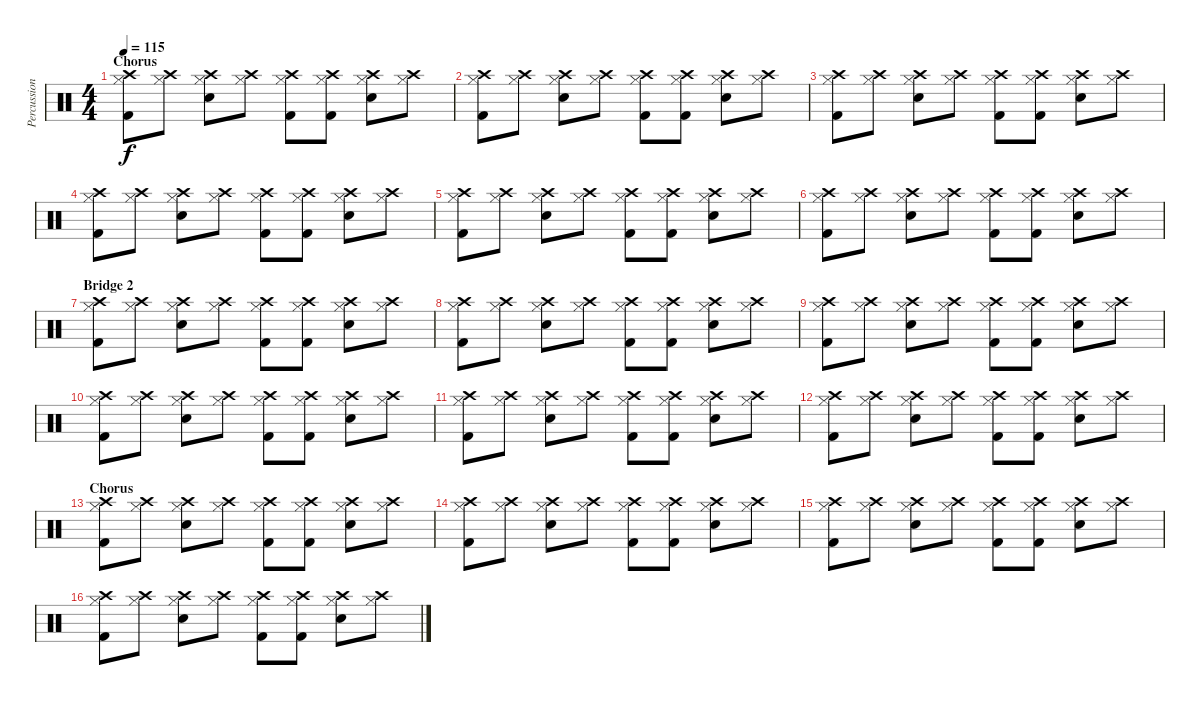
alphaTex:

\track ("Percussions" "Percussion") {instrument percussion}
\staff {score}
\articulation defaults
\ts (4 4)
\section ("" "Chorus")
\tempo 115
\clef neutral
\ks c
("Crash high (hit)" "Hi-Hat (closed)" "Kick (hit) 2").8{dy f} ("Crash high (hit)" "Hi-Hat (closed)").8 ("Crash high (hit)" "Hi-Hat (closed)" "Electric Snare (hit)").8 ("Crash high (hit)" "Hi-Hat (closed)").8 ("Crash high (hit)" "Hi-Hat (closed)" "Kick (hit) 2").8 ("Crash high (hit)" "Hi-Hat (closed)" "Kick (hit) 2").8 ("Crash high (hit)" "Hi-Hat (closed)" "Electric Snare (hit)").8 ("Crash high (hit)" "Hi-Hat (closed)").8 |
("Crash high (hit)" "Hi-Hat (closed)" "Kick (hit) 2").8 ("Crash high (hit)" "Hi-Hat (closed)").8 ("Crash high (hit)" "Hi-Hat (closed)" "Electric Snare (hit)").8 ("Crash high (hit)" "Hi-Hat (closed)").8 ("Crash high (hit)" "Hi-Hat (closed)" "Kick (hit) 2").8 ("Crash high (hit)" "Hi-Hat (closed)" "Kick (hit) 2").8 ("Crash high (hit)" "Hi-Hat (closed)" "Electric Snare (hit)").8 ("Crash high (hit)" "Hi-Hat (closed)").8 |
("Crash high (hit)" "Hi-Hat (closed)" "Kick (hit) 2").8 ("Crash high (hit)" "Hi-Hat (closed)").8 ("Crash high (hit)" "Hi-Hat (closed)" "Electric Snare (hit)").8 ("Crash high (hit)" "Hi-Hat (closed)").8 ("Crash high (hit)" "Hi-Hat (closed)" "Kick (hit) 2").8 ("Crash high (hit)" "Hi-Hat (closed)" "Kick (hit) 2").8 ("Crash high (hit)" "Hi-Hat (closed)" "Electric Snare (hit)").8 ("Crash high (hit)" "Hi-Hat (closed)").8 |
("Crash high (hit)" "Hi-Hat (closed)" "Kick (hit) 2").8 ("Crash high (hit)" "Hi-Hat (closed)").8 ("Crash high (hit)" "Hi-Hat (closed)" "Electric Snare (hit)").8 ("Crash high (hit)" "Hi-Hat (closed)").8 ("Crash high (hit)" "Hi-Hat (closed)" "Kick (hit) 2").8 ("Crash high (hit)" "Hi-Hat (closed)" "Kick (hit) 2").8 ("Crash high (hit)" "Hi-Hat (closed)" "Electric Snare (hit)").8 ("Crash high (hit)" "Hi-Hat (closed)").8 |
("Crash high (hit)" "Hi-Hat (closed)" "Kick (hit) 2").8 ("Crash high (hit)" "Hi-Hat (closed)").8 ("Crash high (hit)" "Hi-Hat (closed)" "Electric Snare (hit)").8 ("Crash high (hit)" "Hi-Hat (closed)").8 ("Crash high (hit)" "Hi-Hat (closed)" "Kick (hit) 2").8 ("Crash high (hit)" "Hi-Hat (closed)" "Kick (hit) 2").8 ("Crash high (hit)" "Hi-Hat (closed)" "Electric Snare (hit)").8 ("Crash high (hit)" "Hi-Hat (closed)").8 |
("Crash high (hit)" "Hi-Hat (closed)" "Kick (hit) 2").8 ("Crash high (hit)" "Hi-Hat (closed)").8 ("Crash high (hit)" "Hi-Hat (closed)" "Electric Snare (hit)").8 ("Crash high (hit)" "Hi-Hat (closed)").8 ("Crash high (hit)" "Hi-Hat (closed)" "Kick (hit) 2").8 ("Crash high (hit)" "Hi-Hat (closed)" "Kick (hit) 2").8 ("Crash high (hit)" "Hi-Hat (closed)" "Electric Snare (hit)").8 ("Crash high (hit)" "Hi-Hat (closed)").8 |
\section ("" "Bridge 2")
("Crash high (hit)" "Hi-Hat (closed)" "Kick (hit) 2").8 ("Crash high (hit)" "Hi-Hat (closed)").8 ("Crash high (hit)" "Hi-Hat (closed)" "Electric Snare (hit)").8 ("Crash high (hit)" "Hi-Hat (closed)").8 ("Crash high (hit)" "Hi-Hat (closed)" "Kick (hit) 2").8 ("Crash high (hit)" "Hi-Hat (closed)" "Kick (hit) 2").8 ("Crash high (hit)" "Hi-Hat (closed)" "Electric Snare (hit)").8 ("Crash high (hit)" "Hi-Hat (closed)").8 |
("Crash high (hit)" "Hi-Hat (closed)" "Kick (hit) 2").8 ("Crash high (hit)" "Hi-Hat (closed)").8 ("Crash high (hit)" "Hi-Hat (closed)" "Electric Snare (hit)").8 ("Crash high (hit)" "Hi-Hat (closed)").8 ("Crash high (hit)" "Hi-Hat (closed)" "Kick (hit) 2").8 ("Crash high (hit)" "Hi-Hat (closed)" "Kick (hit) 2").8 ("Crash high (hit)" "Hi-Hat (closed)" "Electric Snare (hit)").8 ("Crash high (hit)" "Hi-Hat (closed)").8 |
("Crash high (hit)" "Hi-Hat (closed)" "Kick (hit) 2").8 ("Crash high (hit)" "Hi-Hat (closed)").8 ("Crash high (hit)" "Hi-Hat (closed)" "Electric Snare (hit)").8 ("Crash high (hit)" "Hi-Hat (closed)").8 ("Crash high (hit)" "Hi-Hat (closed)" "Kick (hit) 2").8 ("Crash high (hit)" "Hi-Hat (closed)" "Kick (hit) 2").8 ("Crash high (hit)" "Hi-Hat (closed)" "Electric Snare (hit)").8 ("Crash high (hit)" "Hi-Hat (closed)").8 |
("Crash high (hit)" "Hi-Hat (closed)" "Kick (hit) 2").8 ("Crash high (hit)" "Hi-Hat (closed)").8 ("Crash high (hit)" "Hi-Hat (closed)" "Electric Snare (hit)").8 ("Crash high (hit)" "Hi-Hat (closed)").8 ("Crash high (hit)" "Hi-Hat (closed)" "Kick (hit) 2").8 ("Crash high (hit)" "Hi-Hat (closed)" "Kick (hit) 2").8 ("Crash high (hit)" "Hi-Hat (closed)" "Electric Snare (hit)").8 ("Crash high (hit)" "Hi-Hat (closed)").8 |
("Crash high (hit)" "Hi-Hat (closed)" "Kick (hit) 2").8 ("Crash high (hit)" "Hi-Hat (closed)").8 ("Crash high (hit)" "Hi-Hat (closed)" "Electric Snare (hit)").8 ("Crash high (hit)" "Hi-Hat (closed)").8 ("Crash high (hit)" "Hi-Hat (closed)" "Kick (hit) 2").8 ("Crash high (hit)" "Hi-Hat (closed)" "Kick (hit) 2").8 ("Crash high (hit)" "Hi-Hat (closed)" "Electric Snare (hit)").8 ("Crash high (hit)" "Hi-Hat (closed)").8 |
("Crash high (hit)" "Hi-Hat (closed)" "Kick (hit) 2").8 ("Crash high (hit)" "Hi-Hat (closed)").8 ("Crash high (hit)" "Hi-Hat (closed)" "Electric Snare (hit)").8 ("Crash high (hit)" "Hi-Hat (closed)").8 ("Crash high (hit)" "Hi-Hat (closed)" "Kick (hit) 2").8 ("Crash high (hit)" "Hi-Hat (closed)" "Kick (hit) 2").8 ("Crash high (hit)" "Hi-Hat (closed)" "Electric Snare (hit)").8 ("Crash high (hit)" "Hi-Hat (closed)").8 |
\section ("" "Chorus")
("Crash high (hit)" "Hi-Hat (closed)" "Kick (hit) 2").8 ("Crash high (hit)" "Hi-Hat (closed)").8 ("Crash high (hit)" "Hi-Hat (closed)" "Electric Snare (hit)").8 ("Crash high (hit)" "Hi-Hat (closed)").8 ("Crash high (hit)" "Hi-Hat (closed)" "Kick (hit) 2").8 ("Crash high (hit)" "Hi-Hat (closed)" "Kick (hit) 2").8 ("Crash high (hit)" "Hi-Hat (closed)" "Electric Snare (hit)").8 ("Crash high (hit)" "Hi-Hat (closed)").8 |
("Crash high (hit)" "Hi-Hat (closed)" "Kick (hit) 2").8 ("Crash high (hit)" "Hi-Hat (closed)").8 ("Crash high (hit)" "Hi-Hat (closed)" "Electric Snare (hit)").8 ("Crash high (hit)" "Hi-Hat (closed)").8 ("Crash high (hit)" "Hi-Hat (closed)" "Kick (hit) 2").8 ("Crash high (hit)" "Hi-Hat (closed)" "Kick (hit) 2").8 ("Crash high (hit)" "Hi-Hat (closed)" "Electric Snare (hit)").8 ("Crash high (hit)" "Hi-Hat (closed)").8 |
("Crash high (hit)" "Hi-Hat (closed)" "Kick (hit) 2").8 ("Crash high (hit)" "Hi-Hat (closed)").8 ("Crash high (hit)" "Hi-Hat (closed)" "Electric Snare (hit)").8 ("Crash high (hit)" "Hi-Hat (closed)").8 ("Crash high (hit)" "Hi-Hat (closed)" "Kick (hit) 2").8 ("Crash high (hit)" "Hi-Hat (closed)" "Kick (hit) 2").8 ("Crash high (hit)" "Hi-Hat (closed)" "Electric Snare (hit)").8 ("Crash high (hit)" "Hi-Hat (closed)").8 |
("Crash high (hit)" "Hi-Hat (closed)" "Kick (hit) 2").8 ("Crash high (hit)" "Hi-Hat (closed)").8 ("Crash high (hit)" "Hi-Hat (closed)" "Electric Snare (hit)").8 ("Crash high (hit)" "Hi-Hat (closed)").8 ("Crash high (hit)" "Hi-Hat (closed)" "Kick (hit) 2").8 ("Crash high (hit)" "Hi-Hat (closed)" "Kick (hit) 2").8 ("Crash high (hit)" "Hi-Hat (closed)" "Electric Snare (hit)").8 ("Crash high (hit)" "Hi-Hat (closed)").8
